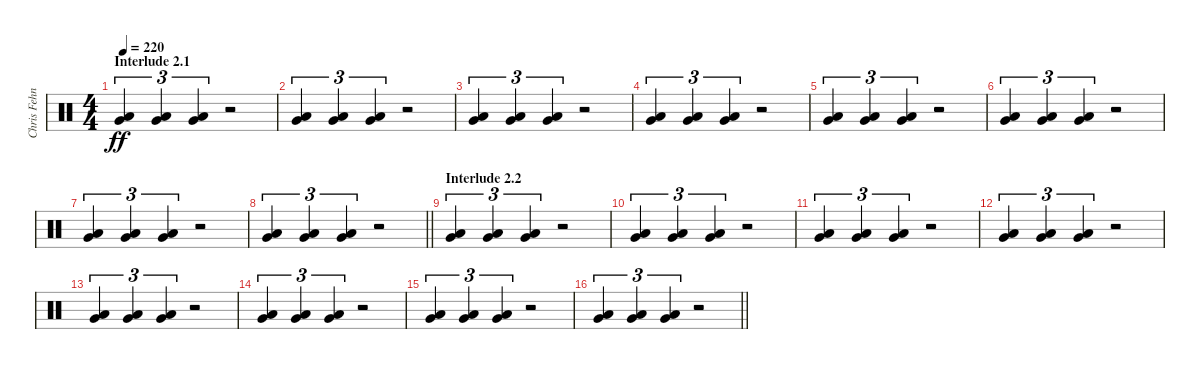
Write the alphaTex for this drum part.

\track ("Chris Fehn" "Chris Fehn") {instrument percussion}
\staff {score}
\articulation defaults
\ts (4 4)
\section ("" "Interlude 2.1")
\tempo 220
\clef neutral
\ks c
("Very Low Tom (hit)" "Low Floor Tom (hit)").4{tu (3 2) dy ff} ("Very Low Tom (hit)" "Low Floor Tom (hit)").4{tu (3 2)} ("Very Low Tom (hit)" "Low Floor Tom (hit)").4{tu (3 2)} r.2 |
("Very Low Tom (hit)" "Low Floor Tom (hit)").4{tu (3 2)} ("Very Low Tom (hit)" "Low Floor Tom (hit)").4{tu (3 2)} ("Very Low Tom (hit)" "Low Floor Tom (hit)").4{tu (3 2)} r.2 |
("Very Low Tom (hit)" "Low Floor Tom (hit)").4{tu (3 2)} ("Very Low Tom (hit)" "Low Floor Tom (hit)").4{tu (3 2)} ("Very Low Tom (hit)" "Low Floor Tom (hit)").4{tu (3 2)} r.2 |
("Very Low Tom (hit)" "Low Floor Tom (hit)").4{tu (3 2)} ("Very Low Tom (hit)" "Low Floor Tom (hit)").4{tu (3 2)} ("Very Low Tom (hit)" "Low Floor Tom (hit)").4{tu (3 2)} r.2 |
("Very Low Tom (hit)" "Low Floor Tom (hit)").4{tu (3 2)} ("Very Low Tom (hit)" "Low Floor Tom (hit)").4{tu (3 2)} ("Very Low Tom (hit)" "Low Floor Tom (hit)").4{tu (3 2)} r.2 |
("Very Low Tom (hit)" "Low Floor Tom (hit)").4{tu (3 2)} ("Very Low Tom (hit)" "Low Floor Tom (hit)").4{tu (3 2)} ("Very Low Tom (hit)" "Low Floor Tom (hit)").4{tu (3 2)} r.2 |
("Very Low Tom (hit)" "Low Floor Tom (hit)").4{tu (3 2)} ("Very Low Tom (hit)" "Low Floor Tom (hit)").4{tu (3 2)} ("Very Low Tom (hit)" "Low Floor Tom (hit)").4{tu (3 2)} r.2 |
\barLineRight lightlight
("Very Low Tom (hit)" "Low Floor Tom (hit)").4{tu (3 2)} ("Very Low Tom (hit)" "Low Floor Tom (hit)").4{tu (3 2)} ("Very Low Tom (hit)" "Low Floor Tom (hit)").4{tu (3 2)} r.2 |
\section ("" "Interlude 2.2")
("Very Low Tom (hit)" "Low Floor Tom (hit)").4{tu (3 2)} ("Very Low Tom (hit)" "Low Floor Tom (hit)").4{tu (3 2)} ("Very Low Tom (hit)" "Low Floor Tom (hit)").4{tu (3 2)} r.2 |
("Very Low Tom (hit)" "Low Floor Tom (hit)").4{tu (3 2)} ("Very Low Tom (hit)" "Low Floor Tom (hit)").4{tu (3 2)} ("Very Low Tom (hit)" "Low Floor Tom (hit)").4{tu (3 2)} r.2 |
("Very Low Tom (hit)" "Low Floor Tom (hit)").4{tu (3 2)} ("Very Low Tom (hit)" "Low Floor Tom (hit)").4{tu (3 2)} ("Very Low Tom (hit)" "Low Floor Tom (hit)").4{tu (3 2)} r.2 |
("Very Low Tom (hit)" "Low Floor Tom (hit)").4{tu (3 2)} ("Very Low Tom (hit)" "Low Floor Tom (hit)").4{tu (3 2)} ("Very Low Tom (hit)" "Low Floor Tom (hit)").4{tu (3 2)} r.2 |
("Very Low Tom (hit)" "Low Floor Tom (hit)").4{tu (3 2)} ("Very Low Tom (hit)" "Low Floor Tom (hit)").4{tu (3 2)} ("Very Low Tom (hit)" "Low Floor Tom (hit)").4{tu (3 2)} r.2 |
("Very Low Tom (hit)" "Low Floor Tom (hit)").4{tu (3 2)} ("Very Low Tom (hit)" "Low Floor Tom (hit)").4{tu (3 2)} ("Very Low Tom (hit)" "Low Floor Tom (hit)").4{tu (3 2)} r.2 |
("Very Low Tom (hit)" "Low Floor Tom (hit)").4{tu (3 2)} ("Very Low Tom (hit)" "Low Floor Tom (hit)").4{tu (3 2)} ("Very Low Tom (hit)" "Low Floor Tom (hit)").4{tu (3 2)} r.2 |
\barLineRight lightlight
("Very Low Tom (hit)" "Low Floor Tom (hit)").4{tu (3 2)} ("Very Low Tom (hit)" "Low Floor Tom (hit)").4{tu (3 2)} ("Very Low Tom (hit)" "Low Floor Tom (hit)").4{tu (3 2)} r.2
